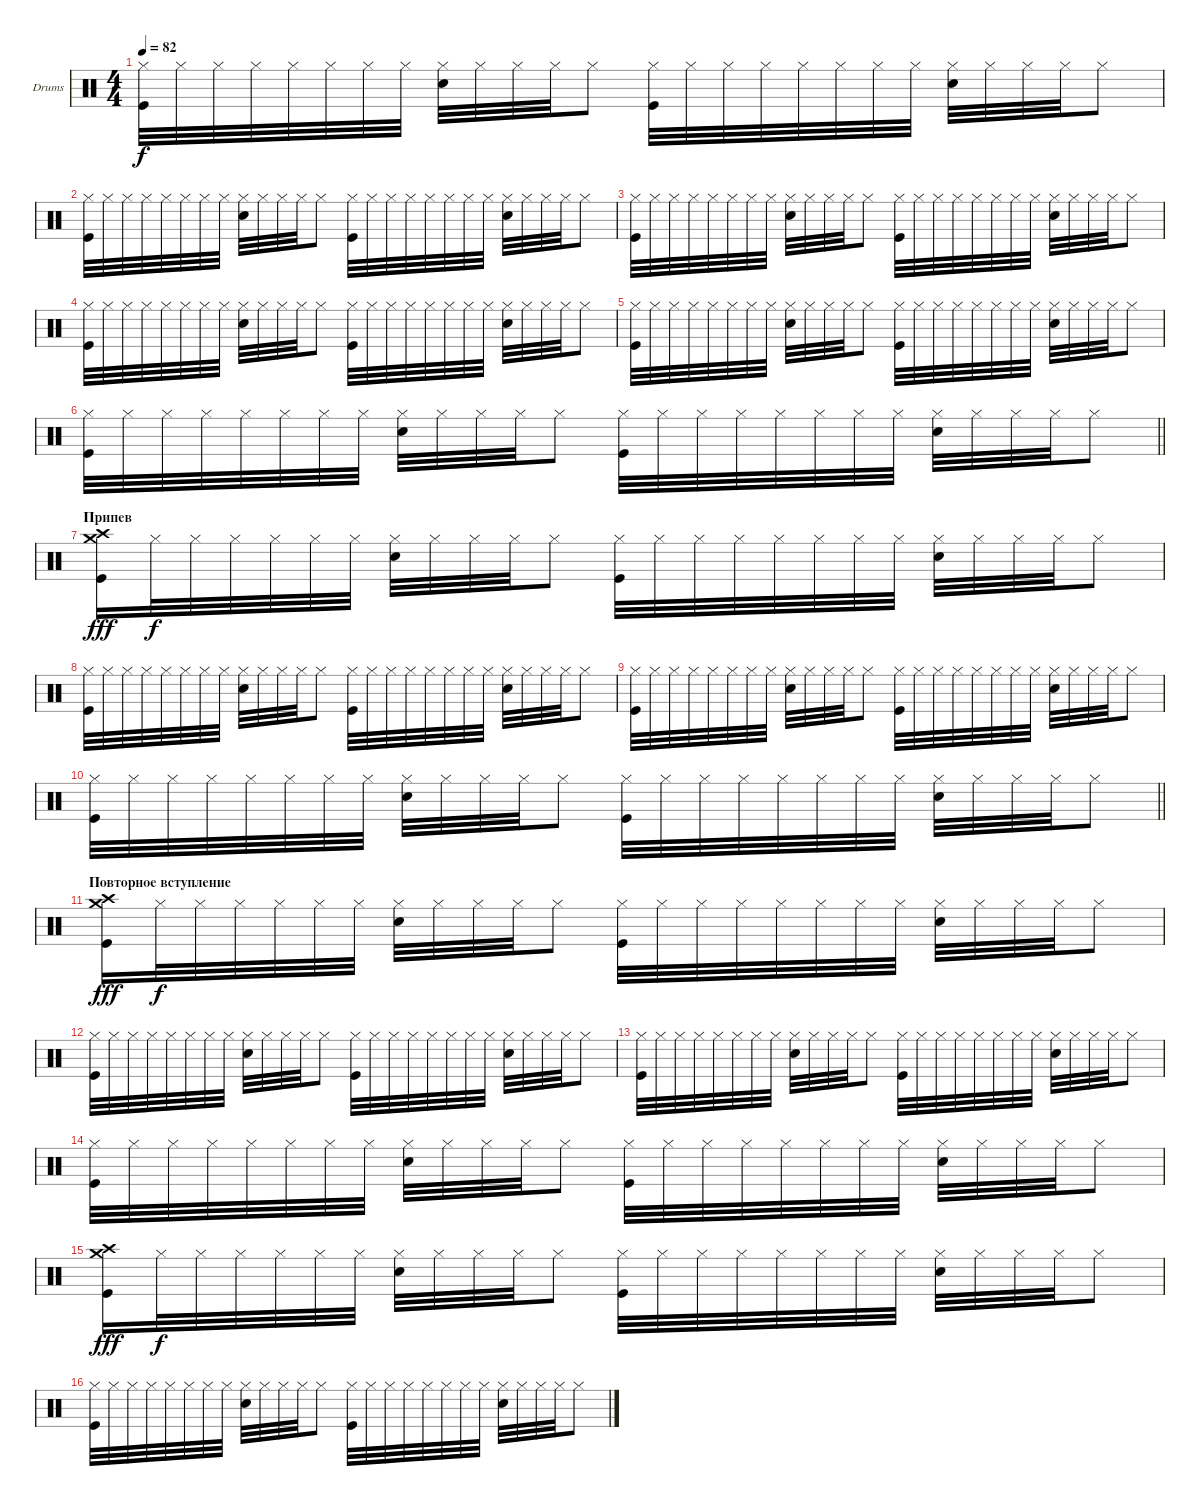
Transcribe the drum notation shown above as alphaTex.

\bracketExtendMode groupsimilarinstruments
\firstSystemTrackNameOrientation horizontal
\otherSystemsTrackNameOrientation horizontal
\track ("Александр Манякин" "Drums") {instrument percussion}
\staff {score}
\articulation defaults
\ts (4 4)
\tempo 82
\clef neutral
\ks c
("Hi-Hat (closed)" "Kick (hit)").32{dy f} "Hi-Hat (closed)".32 "Hi-Hat (closed)".32 "Hi-Hat (closed)".32 "Hi-Hat (closed)".32 "Hi-Hat (closed)".32 "Hi-Hat (closed)".32 "Hi-Hat (closed)".32 ("Hi-Hat (closed)" "Snare (hit) 2").32 "Hi-Hat (closed)".32 "Hi-Hat (closed)".32 "Hi-Hat (closed)".32 "Hi-Hat (closed)".8 ("Hi-Hat (closed)" "Kick (hit)").32 "Hi-Hat (closed)".32 "Hi-Hat (closed)".32 "Hi-Hat (closed)".32 "Hi-Hat (closed)".32 "Hi-Hat (closed)".32 "Hi-Hat (closed)".32 "Hi-Hat (closed)".32 ("Hi-Hat (closed)" "Snare (hit) 2").32 "Hi-Hat (closed)".32 "Hi-Hat (closed)".32 "Hi-Hat (closed)".32 "Hi-Hat (closed)".8 |
("Hi-Hat (closed)" "Kick (hit)").32 "Hi-Hat (closed)".32 "Hi-Hat (closed)".32 "Hi-Hat (closed)".32 "Hi-Hat (closed)".32 "Hi-Hat (closed)".32 "Hi-Hat (closed)".32 "Hi-Hat (closed)".32 ("Hi-Hat (closed)" "Snare (hit) 2").32 "Hi-Hat (closed)".32 "Hi-Hat (closed)".32 "Hi-Hat (closed)".32 "Hi-Hat (closed)".8 ("Hi-Hat (closed)" "Kick (hit)").32 "Hi-Hat (closed)".32 "Hi-Hat (closed)".32 "Hi-Hat (closed)".32 "Hi-Hat (closed)".32 "Hi-Hat (closed)".32 "Hi-Hat (closed)".32 "Hi-Hat (closed)".32 ("Hi-Hat (closed)" "Snare (hit) 2").32 "Hi-Hat (closed)".32 "Hi-Hat (closed)".32 "Hi-Hat (closed)".32 "Hi-Hat (closed)".8 |
("Hi-Hat (closed)" "Kick (hit)").32 "Hi-Hat (closed)".32 "Hi-Hat (closed)".32 "Hi-Hat (closed)".32 "Hi-Hat (closed)".32 "Hi-Hat (closed)".32 "Hi-Hat (closed)".32 "Hi-Hat (closed)".32 ("Hi-Hat (closed)" "Snare (hit) 2").32 "Hi-Hat (closed)".32 "Hi-Hat (closed)".32 "Hi-Hat (closed)".32 "Hi-Hat (closed)".8 ("Hi-Hat (closed)" "Kick (hit)").32 "Hi-Hat (closed)".32 "Hi-Hat (closed)".32 "Hi-Hat (closed)".32 "Hi-Hat (closed)".32 "Hi-Hat (closed)".32 "Hi-Hat (closed)".32 "Hi-Hat (closed)".32 ("Hi-Hat (closed)" "Snare (hit) 2").32 "Hi-Hat (closed)".32 "Hi-Hat (closed)".32 "Hi-Hat (closed)".32 "Hi-Hat (closed)".8 |
("Hi-Hat (closed)" "Kick (hit)").32 "Hi-Hat (closed)".32 "Hi-Hat (closed)".32 "Hi-Hat (closed)".32 "Hi-Hat (closed)".32 "Hi-Hat (closed)".32 "Hi-Hat (closed)".32 "Hi-Hat (closed)".32 ("Hi-Hat (closed)" "Snare (hit) 2").32 "Hi-Hat (closed)".32 "Hi-Hat (closed)".32 "Hi-Hat (closed)".32 "Hi-Hat (closed)".8 ("Hi-Hat (closed)" "Kick (hit)").32 "Hi-Hat (closed)".32 "Hi-Hat (closed)".32 "Hi-Hat (closed)".32 "Hi-Hat (closed)".32 "Hi-Hat (closed)".32 "Hi-Hat (closed)".32 "Hi-Hat (closed)".32 ("Hi-Hat (closed)" "Snare (hit) 2").32 "Hi-Hat (closed)".32 "Hi-Hat (closed)".32 "Hi-Hat (closed)".32 "Hi-Hat (closed)".8 |
("Hi-Hat (closed)" "Kick (hit)").32 "Hi-Hat (closed)".32 "Hi-Hat (closed)".32 "Hi-Hat (closed)".32 "Hi-Hat (closed)".32 "Hi-Hat (closed)".32 "Hi-Hat (closed)".32 "Hi-Hat (closed)".32 ("Hi-Hat (closed)" "Snare (hit) 2").32 "Hi-Hat (closed)".32 "Hi-Hat (closed)".32 "Hi-Hat (closed)".32 "Hi-Hat (closed)".8 ("Hi-Hat (closed)" "Kick (hit)").32 "Hi-Hat (closed)".32 "Hi-Hat (closed)".32 "Hi-Hat (closed)".32 "Hi-Hat (closed)".32 "Hi-Hat (closed)".32 "Hi-Hat (closed)".32 "Hi-Hat (closed)".32 ("Hi-Hat (closed)" "Snare (hit) 2").32 "Hi-Hat (closed)".32 "Hi-Hat (closed)".32 "Hi-Hat (closed)".32 "Hi-Hat (closed)".8 |
\barLineRight lightlight
("Hi-Hat (closed)" "Kick (hit)").32 "Hi-Hat (closed)".32 "Hi-Hat (closed)".32 "Hi-Hat (closed)".32 "Hi-Hat (closed)".32 "Hi-Hat (closed)".32 "Hi-Hat (closed)".32 "Hi-Hat (closed)".32 ("Hi-Hat (closed)" "Snare (hit) 2").32 "Hi-Hat (closed)".32 "Hi-Hat (closed)".32 "Hi-Hat (closed)".32 "Hi-Hat (closed)".8 ("Hi-Hat (closed)" "Kick (hit)").32 "Hi-Hat (closed)".32 "Hi-Hat (closed)".32 "Hi-Hat (closed)".32 "Hi-Hat (closed)".32 "Hi-Hat (closed)".32 "Hi-Hat (closed)".32 "Hi-Hat (closed)".32 ("Hi-Hat (closed)" "Snare (hit) 2").32 "Hi-Hat (closed)".32 "Hi-Hat (closed)".32 "Hi-Hat (closed)".32 "Hi-Hat (closed)".8 |
\section ("" "Припев")
("Crash medium (hit)" "Crash high (hit)" "Kick (hit)").16{dy fff} "Hi-Hat (closed)".32{dy f} "Hi-Hat (closed)".32 "Hi-Hat (closed)".32 "Hi-Hat (closed)".32 "Hi-Hat (closed)".32 "Hi-Hat (closed)".32 ("Hi-Hat (closed)" "Snare (hit) 2").32 "Hi-Hat (closed)".32 "Hi-Hat (closed)".32 "Hi-Hat (closed)".32 "Hi-Hat (closed)".8 ("Hi-Hat (closed)" "Kick (hit)").32 "Hi-Hat (closed)".32 "Hi-Hat (closed)".32 "Hi-Hat (closed)".32 "Hi-Hat (closed)".32 "Hi-Hat (closed)".32 "Hi-Hat (closed)".32 "Hi-Hat (closed)".32 ("Hi-Hat (closed)" "Snare (hit) 2").32 "Hi-Hat (closed)".32 "Hi-Hat (closed)".32 "Hi-Hat (closed)".32 "Hi-Hat (closed)".8 |
("Hi-Hat (closed)" "Kick (hit)").32 "Hi-Hat (closed)".32 "Hi-Hat (closed)".32 "Hi-Hat (closed)".32 "Hi-Hat (closed)".32 "Hi-Hat (closed)".32 "Hi-Hat (closed)".32 "Hi-Hat (closed)".32 ("Hi-Hat (closed)" "Snare (hit) 2").32 "Hi-Hat (closed)".32 "Hi-Hat (closed)".32 "Hi-Hat (closed)".32 "Hi-Hat (closed)".8 ("Hi-Hat (closed)" "Kick (hit)").32 "Hi-Hat (closed)".32 "Hi-Hat (closed)".32 "Hi-Hat (closed)".32 "Hi-Hat (closed)".32 "Hi-Hat (closed)".32 "Hi-Hat (closed)".32 "Hi-Hat (closed)".32 ("Hi-Hat (closed)" "Snare (hit) 2").32 "Hi-Hat (closed)".32 "Hi-Hat (closed)".32 "Hi-Hat (closed)".32 "Hi-Hat (closed)".8 |
("Hi-Hat (closed)" "Kick (hit)").32 "Hi-Hat (closed)".32 "Hi-Hat (closed)".32 "Hi-Hat (closed)".32 "Hi-Hat (closed)".32 "Hi-Hat (closed)".32 "Hi-Hat (closed)".32 "Hi-Hat (closed)".32 ("Hi-Hat (closed)" "Snare (hit) 2").32 "Hi-Hat (closed)".32 "Hi-Hat (closed)".32 "Hi-Hat (closed)".32 "Hi-Hat (closed)".8 ("Hi-Hat (closed)" "Kick (hit)").32 "Hi-Hat (closed)".32 "Hi-Hat (closed)".32 "Hi-Hat (closed)".32 "Hi-Hat (closed)".32 "Hi-Hat (closed)".32 "Hi-Hat (closed)".32 "Hi-Hat (closed)".32 ("Hi-Hat (closed)" "Snare (hit) 2").32 "Hi-Hat (closed)".32 "Hi-Hat (closed)".32 "Hi-Hat (closed)".32 "Hi-Hat (closed)".8 |
\barLineRight lightlight
("Hi-Hat (closed)" "Kick (hit)").32 "Hi-Hat (closed)".32 "Hi-Hat (closed)".32 "Hi-Hat (closed)".32 "Hi-Hat (closed)".32 "Hi-Hat (closed)".32 "Hi-Hat (closed)".32 "Hi-Hat (closed)".32 ("Hi-Hat (closed)" "Snare (hit) 2").32 "Hi-Hat (closed)".32 "Hi-Hat (closed)".32 "Hi-Hat (closed)".32 "Hi-Hat (closed)".8 ("Hi-Hat (closed)" "Kick (hit)").32 "Hi-Hat (closed)".32 "Hi-Hat (closed)".32 "Hi-Hat (closed)".32 "Hi-Hat (closed)".32 "Hi-Hat (closed)".32 "Hi-Hat (closed)".32 "Hi-Hat (closed)".32 ("Hi-Hat (closed)" "Snare (hit) 2").32 "Hi-Hat (closed)".32 "Hi-Hat (closed)".32 "Hi-Hat (closed)".32 "Hi-Hat (closed)".8 |
\section ("" "Повторное вступление")
("Crash medium (hit)" "Crash high (hit)" "Kick (hit)").16{dy fff} "Hi-Hat (closed)".32{dy f} "Hi-Hat (closed)".32 "Hi-Hat (closed)".32 "Hi-Hat (closed)".32 "Hi-Hat (closed)".32 "Hi-Hat (closed)".32 ("Hi-Hat (closed)" "Snare (hit) 2").32 "Hi-Hat (closed)".32 "Hi-Hat (closed)".32 "Hi-Hat (closed)".32 "Hi-Hat (closed)".8 ("Hi-Hat (closed)" "Kick (hit)").32 "Hi-Hat (closed)".32 "Hi-Hat (closed)".32 "Hi-Hat (closed)".32 "Hi-Hat (closed)".32 "Hi-Hat (closed)".32 "Hi-Hat (closed)".32 "Hi-Hat (closed)".32 ("Hi-Hat (closed)" "Snare (hit) 2").32 "Hi-Hat (closed)".32 "Hi-Hat (closed)".32 "Hi-Hat (closed)".32 "Hi-Hat (closed)".8 |
("Hi-Hat (closed)" "Kick (hit)").32 "Hi-Hat (closed)".32 "Hi-Hat (closed)".32 "Hi-Hat (closed)".32 "Hi-Hat (closed)".32 "Hi-Hat (closed)".32 "Hi-Hat (closed)".32 "Hi-Hat (closed)".32 ("Hi-Hat (closed)" "Snare (hit) 2").32 "Hi-Hat (closed)".32 "Hi-Hat (closed)".32 "Hi-Hat (closed)".32 "Hi-Hat (closed)".8 ("Hi-Hat (closed)" "Kick (hit)").32 "Hi-Hat (closed)".32 "Hi-Hat (closed)".32 "Hi-Hat (closed)".32 "Hi-Hat (closed)".32 "Hi-Hat (closed)".32 "Hi-Hat (closed)".32 "Hi-Hat (closed)".32 ("Hi-Hat (closed)" "Snare (hit) 2").32 "Hi-Hat (closed)".32 "Hi-Hat (closed)".32 "Hi-Hat (closed)".32 "Hi-Hat (closed)".8 |
("Hi-Hat (closed)" "Kick (hit)").32 "Hi-Hat (closed)".32 "Hi-Hat (closed)".32 "Hi-Hat (closed)".32 "Hi-Hat (closed)".32 "Hi-Hat (closed)".32 "Hi-Hat (closed)".32 "Hi-Hat (closed)".32 ("Hi-Hat (closed)" "Snare (hit) 2").32 "Hi-Hat (closed)".32 "Hi-Hat (closed)".32 "Hi-Hat (closed)".32 "Hi-Hat (closed)".8 ("Hi-Hat (closed)" "Kick (hit)").32 "Hi-Hat (closed)".32 "Hi-Hat (closed)".32 "Hi-Hat (closed)".32 "Hi-Hat (closed)".32 "Hi-Hat (closed)".32 "Hi-Hat (closed)".32 "Hi-Hat (closed)".32 ("Hi-Hat (closed)" "Snare (hit) 2").32 "Hi-Hat (closed)".32 "Hi-Hat (closed)".32 "Hi-Hat (closed)".32 "Hi-Hat (closed)".8 |
("Hi-Hat (closed)" "Kick (hit)").32 "Hi-Hat (closed)".32 "Hi-Hat (closed)".32 "Hi-Hat (closed)".32 "Hi-Hat (closed)".32 "Hi-Hat (closed)".32 "Hi-Hat (closed)".32 "Hi-Hat (closed)".32 ("Hi-Hat (closed)" "Snare (hit) 2").32 "Hi-Hat (closed)".32 "Hi-Hat (closed)".32 "Hi-Hat (closed)".32 "Hi-Hat (closed)".8 ("Hi-Hat (closed)" "Kick (hit)").32 "Hi-Hat (closed)".32 "Hi-Hat (closed)".32 "Hi-Hat (closed)".32 "Hi-Hat (closed)".32 "Hi-Hat (closed)".32 "Hi-Hat (closed)".32 "Hi-Hat (closed)".32 ("Hi-Hat (closed)" "Snare (hit) 2").32 "Hi-Hat (closed)".32 "Hi-Hat (closed)".32 "Hi-Hat (closed)".32 "Hi-Hat (closed)".8 |
("Crash medium (hit)" "Crash high (hit)" "Kick (hit)").16{dy fff} "Hi-Hat (closed)".32{dy f} "Hi-Hat (closed)".32 "Hi-Hat (closed)".32 "Hi-Hat (closed)".32 "Hi-Hat (closed)".32 "Hi-Hat (closed)".32 ("Hi-Hat (closed)" "Snare (hit) 2").32 "Hi-Hat (closed)".32 "Hi-Hat (closed)".32 "Hi-Hat (closed)".32 "Hi-Hat (closed)".8 ("Hi-Hat (closed)" "Kick (hit)").32 "Hi-Hat (closed)".32 "Hi-Hat (closed)".32 "Hi-Hat (closed)".32 "Hi-Hat (closed)".32 "Hi-Hat (closed)".32 "Hi-Hat (closed)".32 "Hi-Hat (closed)".32 ("Hi-Hat (closed)" "Snare (hit) 2").32 "Hi-Hat (closed)".32 "Hi-Hat (closed)".32 "Hi-Hat (closed)".32 "Hi-Hat (closed)".8 |
("Hi-Hat (closed)" "Kick (hit)").32 "Hi-Hat (closed)".32 "Hi-Hat (closed)".32 "Hi-Hat (closed)".32 "Hi-Hat (closed)".32 "Hi-Hat (closed)".32 "Hi-Hat (closed)".32 "Hi-Hat (closed)".32 ("Hi-Hat (closed)" "Snare (hit) 2").32 "Hi-Hat (closed)".32 "Hi-Hat (closed)".32 "Hi-Hat (closed)".32 "Hi-Hat (closed)".8 ("Hi-Hat (closed)" "Kick (hit)").32 "Hi-Hat (closed)".32 "Hi-Hat (closed)".32 "Hi-Hat (closed)".32 "Hi-Hat (closed)".32 "Hi-Hat (closed)".32 "Hi-Hat (closed)".32 "Hi-Hat (closed)".32 ("Hi-Hat (closed)" "Snare (hit) 2").32 "Hi-Hat (closed)".32 "Hi-Hat (closed)".32 "Hi-Hat (closed)".32 "Hi-Hat (closed)".8
